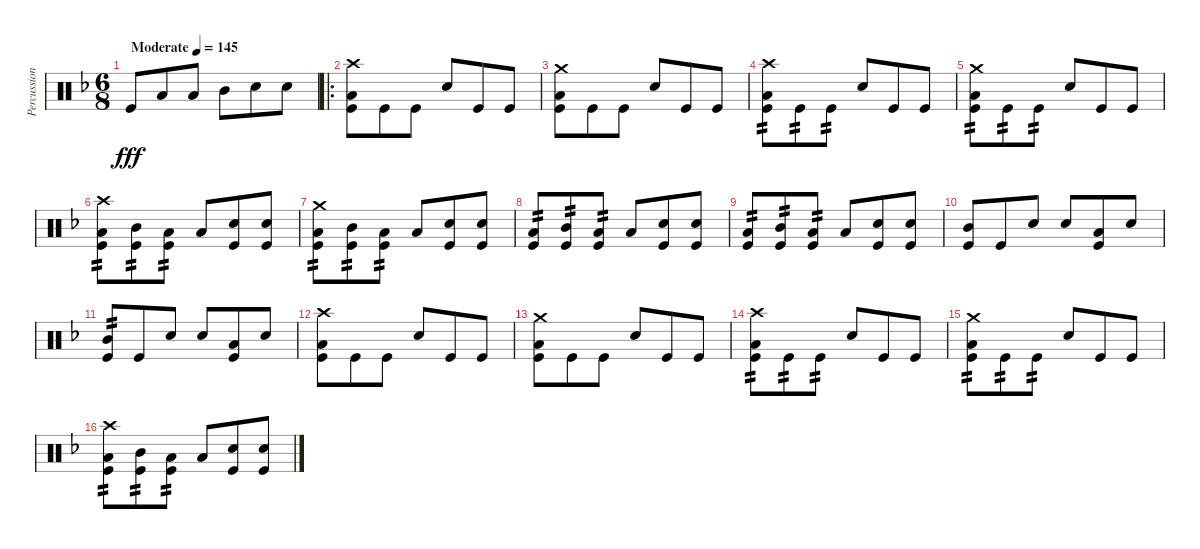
\track ("Percussion" "Percussion") {instrument percussion}
\staff {score}
\articulation defaults
\ts (6 8)
\tempo (145 "Moderate")
\clef neutral
\ks dminor "Kick (hit)".8{dy fff} "Low Floor Tom (hit)".8 "Low Floor Tom (hit)".8 "Mid Tom (hit)".8 "Electric Snare (hit)".8 "Electric Snare (hit)".8
|
\ro
("Kick (hit)" "Low Floor Tom (hit)" "Crash high (hit)").8 "Kick (hit)".8 "Kick (hit)".8 "Electric Snare (hit)".8 "Kick (hit)".8 "Kick (hit)".8 |
("Kick (hit)" "Low Floor Tom (hit)" "Crash medium (hit)").8 "Kick (hit)".8 "Kick (hit)".8 "Electric Snare (hit)".8 "Kick (hit)".8 "Kick (hit)".8 |
("Kick (hit)" "Low Floor Tom (hit)" "Crash high (hit)").8{tp 2} "Kick (hit)".8{tp 2} "Kick (hit)".8{tp 2} "Electric Snare (hit)".8 "Kick (hit)".8 "Kick (hit)".8 |
("Kick (hit)" "Low Floor Tom (hit)" "Crash medium (hit)").8{tp 2} "Kick (hit)".8{tp 2} "Kick (hit)".8{tp 2} "Electric Snare (hit)".8 "Kick (hit)".8 "Kick (hit)".8 |
("Kick (hit)" "Low Floor Tom (hit)" "Crash high (hit)").8{tp 2} ("Kick (hit)" "Mid Tom (hit)").8{tp 2} ("Kick (hit)" "Low Tom (hit)").8{tp 2} "Low Floor Tom (hit)".8 ("Kick (hit)" "Electric Snare (hit)").8 ("Kick (hit)" "Electric Snare (hit)").8 |
("Kick (hit)" "Low Floor Tom (hit)" "Crash medium (hit)").8{tp 2} ("Kick (hit)" "Mid Tom (hit)").8{tp 2} ("Kick (hit)" "Low Tom (hit)").8{tp 2} "Low Floor Tom (hit)".8 ("Kick (hit)" "Electric Snare (hit)").8 ("Kick (hit)" "Electric Snare (hit)").8 |
("Kick (hit)" "Low Floor Tom (hit)").8{tp 2} ("Kick (hit)" "Mid Tom (hit)").8{tp 2} ("Kick (hit)" "Low Tom (hit)").8{tp 2} "Low Floor Tom (hit)".8 ("Kick (hit)" "Electric Snare (hit)").8 ("Kick (hit)" "Electric Snare (hit)").8 |
("Kick (hit)" "Low Floor Tom (hit)").8{tp 2} ("Kick (hit)" "Mid Tom (hit)").8{tp 2} ("Kick (hit)" "Low Tom (hit)").8{tp 2} "Low Floor Tom (hit)".8 ("Kick (hit)" "Electric Snare (hit)").8 ("Kick (hit)" "Electric Snare (hit)").8 |
("Kick (hit)" "Mid Tom (hit)").8 "Kick (hit)".8 "Electric Snare (hit)".8 "Electric Snare (hit)".8 ("Kick (hit)" "Low Floor Tom (hit)").8 "Electric Snare (hit)".8 |
("Kick (hit)" "Mid Tom (hit)").8{tp 2} "Kick (hit)".8 "Electric Snare (hit)".8 "Electric Snare (hit)".8 ("Kick (hit)" "Low Floor Tom (hit)").8 "Electric Snare (hit)".8 |
("Kick (hit)" "Low Floor Tom (hit)" "Crash high (hit)").8 "Kick (hit)".8 "Kick (hit)".8 "Electric Snare (hit)".8 "Kick (hit)".8 "Kick (hit)".8 |
("Kick (hit)" "Low Floor Tom (hit)" "Crash medium (hit)").8 "Kick (hit)".8 "Kick (hit)".8 "Electric Snare (hit)".8 "Kick (hit)".8 "Kick (hit)".8 |
("Kick (hit)" "Low Floor Tom (hit)" "Crash high (hit)").8{tp 2} "Kick (hit)".8{tp 2} "Kick (hit)".8{tp 2} "Electric Snare (hit)".8 "Kick (hit)".8 "Kick (hit)".8 |
("Kick (hit)" "Low Floor Tom (hit)" "Crash medium (hit)").8{tp 2} "Kick (hit)".8{tp 2} "Kick (hit)".8{tp 2} "Electric Snare (hit)".8 "Kick (hit)".8 "Kick (hit)".8 |
("Kick (hit)" "Low Floor Tom (hit)" "Crash high (hit)").8{tp 2} ("Kick (hit)" "Mid Tom (hit)").8{tp 2} ("Kick (hit)" "Low Tom (hit)").8{tp 2} "Low Floor Tom (hit)".8 ("Kick (hit)" "Electric Snare (hit)").8 ("Kick (hit)" "Electric Snare (hit)").8
